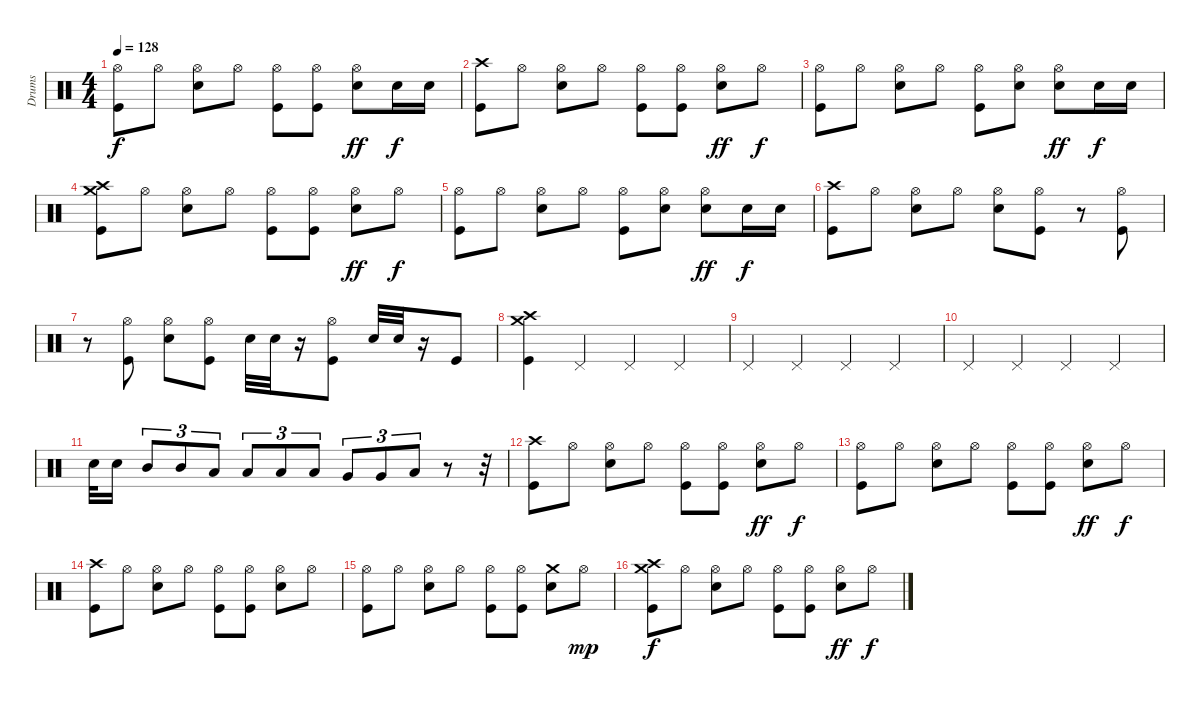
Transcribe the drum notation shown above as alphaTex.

\track ("Drums" "Drums") {instrument percussion}
\staff {score}
\articulation defaults
\ts (4 4)
\tempo 128
\clef neutral
\ks c
("Hi-Hat (open)" "Kick (hit)").8{dy f} "Hi-Hat (open)".8 ("Hi-Hat (open)" "Snare (hit) 2").8 "Hi-Hat (open)".8 ("Hi-Hat (open)" "Kick (hit)").8 ("Hi-Hat (open)" "Kick (hit)").8 ("Hi-Hat (open)" "Snare (hit) 2").8{dy ff} "Snare (hit) 2".16{dy f} "Snare (hit) 2".16 |
("Crash high (hit)" "Kick (hit)").8 "Hi-Hat (open)".8 ("Hi-Hat (open)" "Snare (hit) 2").8 "Hi-Hat (open)".8 ("Hi-Hat (open)" "Kick (hit)").8 ("Hi-Hat (open)" "Kick (hit)").8 ("Hi-Hat (open)" "Snare (hit) 2").8{dy ff} "Hi-Hat (open)".8{dy f} |
("Hi-Hat (open)" "Kick (hit)").8 "Hi-Hat (open)".8 ("Hi-Hat (open)" "Snare (hit) 2").8 "Hi-Hat (open)".8 ("Hi-Hat (open)" "Kick (hit)").8 ("Hi-Hat (open)" "Snare (hit) 2").8 ("Hi-Hat (open)" "Snare (hit) 2").8{dy ff} "Snare (hit) 2".16{dy f} "Snare (hit) 2".16 |
("Crash high (hit)" "Crash medium (hit)" "Kick (hit)").8 "Hi-Hat (open)".8 ("Hi-Hat (open)" "Snare (hit) 2").8 "Hi-Hat (open)".8 ("Hi-Hat (open)" "Kick (hit)").8 ("Hi-Hat (open)" "Kick (hit)").8 ("Hi-Hat (open)" "Snare (hit) 2").8{dy ff} "Hi-Hat (open)".8{dy f} |
("Hi-Hat (open)" "Kick (hit)").8 "Hi-Hat (open)".8 ("Hi-Hat (open)" "Snare (hit) 2").8 "Hi-Hat (open)".8 ("Hi-Hat (open)" "Kick (hit)").8 ("Hi-Hat (open)" "Snare (hit) 2").8 ("Hi-Hat (open)" "Snare (hit) 2").8{dy ff} "Snare (hit) 2".16{dy f} "Snare (hit) 2".16 |
("Crash high (hit)" "Kick (hit)").8 "Hi-Hat (open)".8 ("Hi-Hat (open)" "Snare (hit) 2").8 "Hi-Hat (open)".8 ("Hi-Hat (open)" "Snare (hit) 2").8 ("Hi-Hat (open)" "Kick (hit)").8 r.8 ("Hi-Hat (open)" "Kick (hit)").8 |
r.8 ("Hi-Hat (open)" "Kick (hit)").8 ("Hi-Hat (open)" "Snare (hit) 2").8 ("Hi-Hat (open)" "Kick (hit)").8 "Snare (hit) 2".32 "Snare (hit) 2".32 r.16 ("Hi-Hat (open)" "Kick (hit)").8 "Snare (hit) 2".32 "Snare (hit) 2".32 r.16 "Kick (hit)".8 |
("Crash medium (hit)" "Crash high (hit)" "Kick (hit)").4 "Pedal Hi-Hat (hit)".4 "Pedal Hi-Hat (hit)".4 "Pedal Hi-Hat (hit)".4 |
"Pedal Hi-Hat (hit)".4 "Pedal Hi-Hat (hit)".4 "Pedal Hi-Hat (hit)".4 "Pedal Hi-Hat (hit)".4 |
"Pedal Hi-Hat (hit)".4 "Pedal Hi-Hat (hit)".4 "Pedal Hi-Hat (hit)".4 "Pedal Hi-Hat (hit)".4 |
"Snare (hit) 2".32 "Snare (hit) 2".16 "Mid Tom (hit)".8{tu (3 2)} "Mid Tom (hit)".8{tu (3 2)} "Low Tom (hit)".8{tu (3 2)} "Low Tom (hit)".8{tu (3 2)} "Low Tom (hit)".8{tu (3 2)} "Low Tom (hit)".8{tu (3 2)} "Very Low Tom (hit)".8{tu (3 2)} "Very Low Tom (hit)".8{tu (3 2)} "Low Floor Tom (hit)".8{tu (3 2)} r.8 r.32 |
("Crash high (hit)" "Kick (hit)").8 "Hi-Hat (open)".8 ("Hi-Hat (open)" "Snare (hit) 2").8 "Hi-Hat (open)".8 ("Hi-Hat (open)" "Kick (hit)").8 ("Hi-Hat (open)" "Kick (hit)").8 ("Hi-Hat (open)" "Snare (hit) 2").8{dy ff} "Hi-Hat (open)".8{dy f} |
("Hi-Hat (open)" "Kick (hit)").8 "Hi-Hat (open)".8 ("Hi-Hat (open)" "Snare (hit) 2").8 "Hi-Hat (open)".8 ("Hi-Hat (open)" "Kick (hit)").8 ("Hi-Hat (open)" "Kick (hit)").8 ("Hi-Hat (open)" "Snare (hit) 2").8{dy ff} "Hi-Hat (open)".8{dy f} |
("Crash high (hit)" "Kick (hit)").8 "Hi-Hat (open)".8 ("Hi-Hat (open)" "Snare (hit) 2").8 "Hi-Hat (open)".8 ("Hi-Hat (open)" "Kick (hit)").8 ("Hi-Hat (open)" "Kick (hit)").8 ("Hi-Hat (open)" "Snare (hit) 2").8 "Hi-Hat (open)".8 |
("Hi-Hat (open)" "Kick (hit)").8 "Hi-Hat (open)".8 ("Hi-Hat (open)" "Snare (hit) 2").8 "Hi-Hat (open)".8 ("Hi-Hat (open)" "Kick (hit)").8 ("Hi-Hat (open)" "Kick (hit)").8 ("Crash medium (hit)" "Snare (hit) 2").8 "Hi-Hat (open)".8{dy mp} |
("Crash high (hit)" "Crash medium (hit)" "Kick (hit)").8{dy f} "Hi-Hat (open)".8 ("Hi-Hat (open)" "Snare (hit) 2").8 "Hi-Hat (open)".8 ("Hi-Hat (open)" "Kick (hit)").8 ("Hi-Hat (open)" "Kick (hit)").8 ("Hi-Hat (open)" "Snare (hit) 2").8{dy ff} "Hi-Hat (open)".8{dy f}
